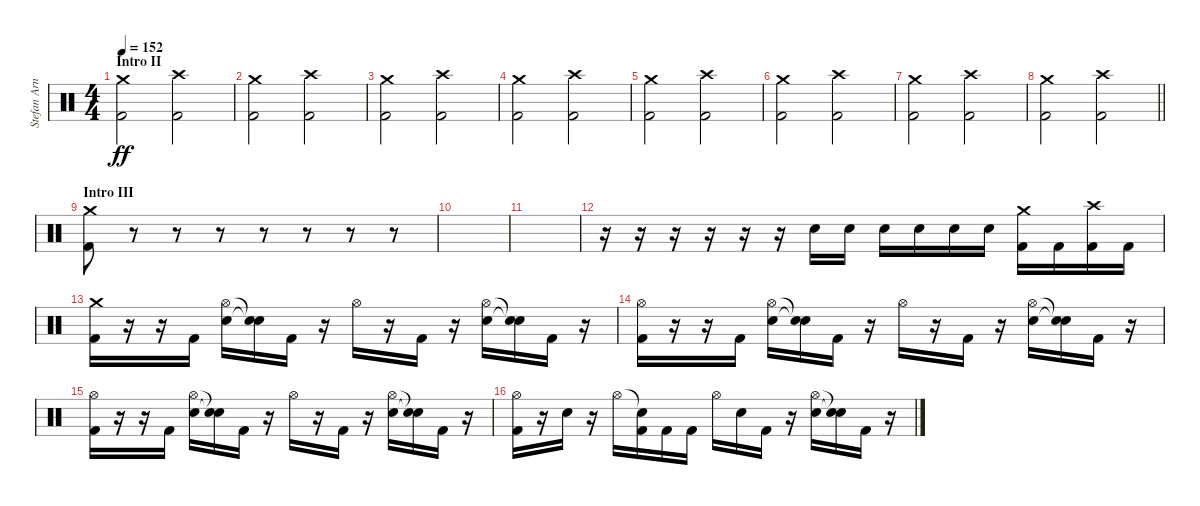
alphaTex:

\track ("Stefan Arnold" "Stefan Arn") {instrument percussion}
\staff {score}
\articulation defaults
\ts (4 4)
\section ("" "Intro II")
\tempo 152
\clef neutral
\ks c
("Crash medium (hit)" "Kick (hit) 2").2{dy ff} ("Crash high (hit)" "Kick (hit) 2").2 |
("Crash medium (hit)" "Kick (hit) 2").2 ("Crash high (hit)" "Kick (hit) 2").2 |
("Crash medium (hit)" "Kick (hit) 2").2 ("Crash high (hit)" "Kick (hit) 2").2 |
("Crash medium (hit)" "Kick (hit) 2").2 ("Crash high (hit)" "Kick (hit) 2").2 |
("Crash medium (hit)" "Kick (hit) 2").2 ("Crash high (hit)" "Kick (hit) 2").2 |
("Crash medium (hit)" "Kick (hit) 2").2 ("Crash high (hit)" "Kick (hit) 2").2 |
("Crash medium (hit)" "Kick (hit) 2").2 ("Crash high (hit)" "Kick (hit) 2").2 |
\barLineRight lightlight
("Crash medium (hit)" "Kick (hit) 2").2 ("Crash high (hit)" "Kick (hit) 2").2 |
\section ("" "Intro III")
("Crash medium (hit)" "Kick (hit) 2").8 r.8 r.8 r.8 r.8 r.8 r.8 r.8 |
|
|
r.16 r.16 r.16 r.16 r.16 r.16 "Electric Snare (hit)".16 "Electric Snare (hit)".16 "Electric Snare (hit)".16 "Electric Snare (hit)".16 "Electric Snare (hit)".16 "Electric Snare (hit)".16 ("Crash medium (hit)" "Kick (hit) 2").16 "Kick (hit) 2".16 ("Crash high (hit)" "Kick (hit) 2").16 "Kick (hit) 2".16 |
("Crash medium (hit)" "Kick (hit) 2").16 r.16 r.16 "Kick (hit) 2".16 ("Hi-Hat (open)" "Electric Snare (hit)").16 ("Snare (hit)"{t} "Electric Snare (hit)"{t}).16 "Kick (hit) 2".16 r.16 "Hi-Hat (open)".16 r.16 "Kick (hit) 2".16 r.16 ("Hi-Hat (open)" "Electric Snare (hit)").16 ("Snare (hit)"{t} "Electric Snare (hit)"{t}).16 "Kick (hit) 2".16 r.16 |
("Hi-Hat (open)" "Kick (hit) 2").16 r.16 r.16 "Kick (hit) 2".16 ("Hi-Hat (open)" "Electric Snare (hit)").16 ("Snare (hit)"{t} "Electric Snare (hit)"{t}).16 "Kick (hit) 2".16 r.16 "Hi-Hat (open)".16 r.16 "Kick (hit) 2".16 r.16 ("Hi-Hat (open)" "Electric Snare (hit)").16 ("Snare (hit)"{t} "Electric Snare (hit)"{t}).16 "Kick (hit) 2".16 r.16 |
("Hi-Hat (open)" "Kick (hit) 2").16 r.16 r.16 "Kick (hit) 2".16 ("Hi-Hat (open)" "Electric Snare (hit)").16 ("Snare (hit)"{t} "Electric Snare (hit)"{t}).16 "Kick (hit) 2".16 r.16 "Hi-Hat (open)".16 r.16 "Kick (hit) 2".16 r.16 ("Hi-Hat (open)" "Electric Snare (hit)").16 ("Snare (hit)"{t} "Electric Snare (hit)"{t}).16 "Kick (hit) 2".16 r.16 |
("Hi-Hat (open)" "Kick (hit) 2").16 r.16 "Electric Snare (hit)".16 r.16 "Hi-Hat (open)".16 ("Snare (hit)"{t} "Kick (hit) 2").16 "Kick (hit) 2".16 "Kick (hit) 2".16 "Hi-Hat (open)".16 "Electric Snare (hit)".16 "Kick (hit) 2".16 r.16 ("Hi-Hat (open)" "Electric Snare (hit)").16 ("Snare (hit)"{t} "Electric Snare (hit)"{t}).16 "Kick (hit) 2".16 r.16
